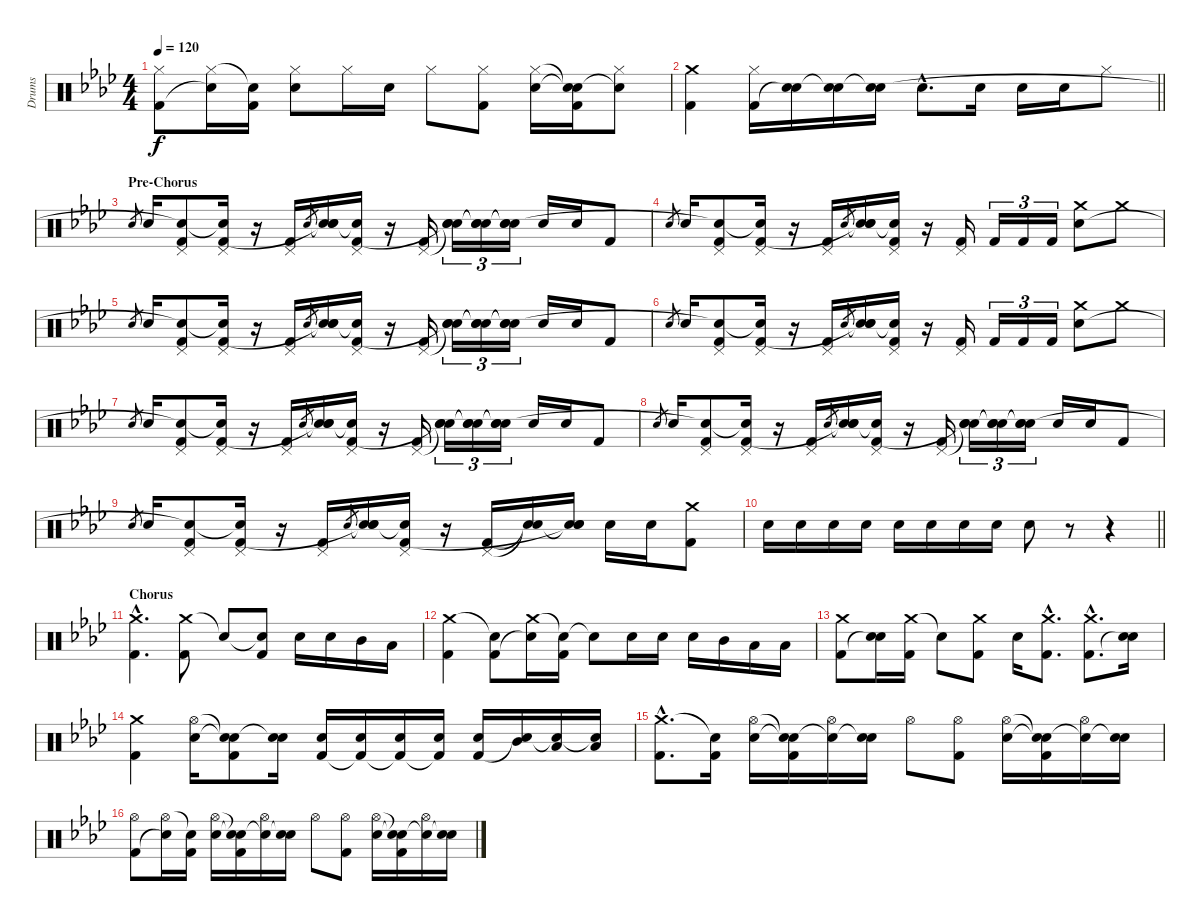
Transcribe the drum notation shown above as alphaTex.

\track ("Drums" "Drums") {instrument percussion}
\staff {score}
\articulation defaults
\ts (4 4)
\tempo 120
\clef neutral
\ks fminor
("Hi-Hat (closed)" "Kick (hit) 2").8{dy f} ("Hi-Hat (closed)" "Snare (hit)"{t}).16 ("Snare (hit)"{t} "Kick (hit) 2").16 ("Hi-Hat (closed)" "Electric Snare (hit)").8 "Hi-Hat (closed)".16 "Electric Snare (hit)".16 "Hi-Hat (closed)".8 ("Hi-Hat (closed)" "Kick (hit) 2").8 ("Hi-Hat (closed)" "Electric Snare (hit)").16 ("Snare (hit)"{t} "Snare (hit)"{t} "Kick (hit) 2").16 ("Hi-Hat (closed)" "Snare (hit)"{t}).8 |
\barLineRight lightlight
("Crash medium (hit)" "Kick (hit) 2").4 ("Hi-Hat (closed)" "Kick (hit) 2").16 ("Electric Snare (hit)" "Snare (hit)"{t}).16 ("Electric Snare (hit)" "Snare (hit)"{t}).16 ("Electric Snare (hit)" "Snare (hit)"{t}).16 "Electric Snare (hit)"{hac}.8{d} "Electric Snare (hit)".16 "Electric Snare (hit)".16 "Electric Snare (hit)".16 "Hi-Hat (closed)".8 |
\section ("" "Pre-Chorus")
"Electric Snare (hit)".8{gr} "Electric Snare (hit)".16 ("Pedal Hi-Hat (hit)" "Snare (hit)"{t} "Kick (hit) 2").8 ("Pedal Hi-Hat (hit)" "Snare (hit)"{t} "Kick (hit) 2").16 r.16 ("Pedal Hi-Hat (hit)" "Kick (hit) 2").16 "Electric Snare (hit)".8{gr} ("Snare (hit)"{t} "Electric Snare (hit)" "Snare (hit)"{t}).16 ("Pedal Hi-Hat (hit)" "Snare (hit)"{t} "Kick (hit) 2").16 r.16 ("Pedal Hi-Hat (hit)" "Kick (hit) 2").16 ("Snare (hit)"{t} "Electric Snare (hit)" "Snare (hit)"{t}).16{tu (3 2)} ("Snare (hit)"{t} "Electric Snare (hit)" "Snare (hit)"{t}).16{tu (3 2)} ("Snare (hit)"{t} "Electric Snare (hit)" "Snare (hit)"{t}).16{tu (3 2)} "Electric Snare (hit)".16 "Electric Snare (hit)".16 "Kick (hit) 2".8 |
"Electric Snare (hit)".8{gr} "Electric Snare (hit)".16 ("Pedal Hi-Hat (hit)" "Snare (hit)"{t} "Kick (hit) 2").8 ("Pedal Hi-Hat (hit)" "Snare (hit)"{t} "Kick (hit) 2").16 r.16 ("Pedal Hi-Hat (hit)" "Kick (hit) 2").16 "Electric Snare (hit)".8{gr} ("Snare (hit)"{t} "Electric Snare (hit)" "Snare (hit)"{t}).16 ("Pedal Hi-Hat (hit)" "Snare (hit)"{t} "Kick (hit) 2").16 r.16 ("Pedal Hi-Hat (hit)" "Kick (hit) 2").16 "Kick (hit) 2".16{tu (3 2)} "Kick (hit) 2".16{tu (3 2)} "Kick (hit) 2".16{tu (3 2)} ("Crash medium (hit)" "Electric Snare (hit)").8 "Crash medium (hit)".8 |
"Electric Snare (hit)".8{gr} "Electric Snare (hit)".16 ("Pedal Hi-Hat (hit)" "Snare (hit)"{t} "Kick (hit) 2").8 ("Pedal Hi-Hat (hit)" "Snare (hit)"{t} "Kick (hit) 2").16 r.16 ("Pedal Hi-Hat (hit)" "Kick (hit) 2").16 "Electric Snare (hit)".8{gr} ("Snare (hit)"{t} "Electric Snare (hit)" "Snare (hit)"{t}).16 ("Pedal Hi-Hat (hit)" "Snare (hit)"{t} "Kick (hit) 2").16 r.16 ("Pedal Hi-Hat (hit)" "Kick (hit) 2").16 ("Snare (hit)"{t} "Electric Snare (hit)" "Snare (hit)"{t}).16{tu (3 2)} ("Snare (hit)"{t} "Electric Snare (hit)" "Snare (hit)"{t}).16{tu (3 2)} ("Snare (hit)"{t} "Electric Snare (hit)" "Snare (hit)"{t}).16{tu (3 2)} "Electric Snare (hit)".16 "Electric Snare (hit)".16 "Kick (hit) 2".8 |
"Electric Snare (hit)".8{gr} "Electric Snare (hit)".16 ("Pedal Hi-Hat (hit)" "Snare (hit)"{t} "Kick (hit) 2").8 ("Pedal Hi-Hat (hit)" "Snare (hit)"{t} "Kick (hit) 2").16 r.16 ("Pedal Hi-Hat (hit)" "Kick (hit) 2").16 "Electric Snare (hit)".8{gr} ("Snare (hit)"{t} "Electric Snare (hit)" "Snare (hit)"{t}).16 ("Pedal Hi-Hat (hit)" "Snare (hit)"{t} "Kick (hit) 2").16 r.16 ("Pedal Hi-Hat (hit)" "Kick (hit) 2").16 "Kick (hit) 2".16{tu (3 2)} "Kick (hit) 2".16{tu (3 2)} "Kick (hit) 2".16{tu (3 2)} ("Crash medium (hit)" "Electric Snare (hit)").8 "Crash medium (hit)".8 |
"Electric Snare (hit)".8{gr} "Electric Snare (hit)".16 ("Pedal Hi-Hat (hit)" "Snare (hit)"{t} "Kick (hit) 2").8 ("Pedal Hi-Hat (hit)" "Snare (hit)"{t} "Kick (hit) 2").16 r.16 ("Pedal Hi-Hat (hit)" "Kick (hit) 2").16 "Electric Snare (hit)".8{gr} ("Snare (hit)"{t} "Electric Snare (hit)" "Snare (hit)"{t}).16 ("Pedal Hi-Hat (hit)" "Snare (hit)"{t} "Kick (hit) 2").16 r.16 ("Pedal Hi-Hat (hit)" "Kick (hit) 2").16 ("Snare (hit)"{t} "Electric Snare (hit)" "Snare (hit)"{t}).16{tu (3 2)} ("Snare (hit)"{t} "Electric Snare (hit)" "Snare (hit)"{t}).16{tu (3 2)} ("Snare (hit)"{t} "Electric Snare (hit)" "Snare (hit)"{t}).16{tu (3 2)} "Electric Snare (hit)".16 "Electric Snare (hit)".16 "Kick (hit) 2".8 |
"Electric Snare (hit)".8{gr} "Electric Snare (hit)".16 ("Pedal Hi-Hat (hit)" "Snare (hit)"{t} "Kick (hit) 2").8 ("Pedal Hi-Hat (hit)" "Snare (hit)"{t} "Kick (hit) 2").16 r.16 ("Pedal Hi-Hat (hit)" "Kick (hit) 2").16 "Electric Snare (hit)".8{gr} ("Snare (hit)"{t} "Electric Snare (hit)" "Snare (hit)"{t}).16 ("Pedal Hi-Hat (hit)" "Snare (hit)"{t} "Kick (hit) 2").16 r.16 ("Pedal Hi-Hat (hit)" "Kick (hit) 2").16 ("Snare (hit)"{t} "Electric Snare (hit)" "Snare (hit)"{t}).16{tu (3 2)} ("Snare (hit)"{t} "Electric Snare (hit)" "Snare (hit)"{t}).16{tu (3 2)} ("Snare (hit)"{t} "Electric Snare (hit)" "Snare (hit)"{t}).16{tu (3 2)} "Electric Snare (hit)".16 "Electric Snare (hit)".16 "Kick (hit) 2".8 |
"Electric Snare (hit)".8{gr} "Electric Snare (hit)".16 ("Pedal Hi-Hat (hit)" "Snare (hit)"{t} "Kick (hit) 2").8 ("Pedal Hi-Hat (hit)" "Snare (hit)"{t} "Kick (hit) 2").16 r.16 ("Pedal Hi-Hat (hit)" "Kick (hit) 2").16 "Electric Snare (hit)".8{gr} ("Snare (hit)"{t} "Electric Snare (hit)" "Snare (hit)"{t}).16 ("Pedal Hi-Hat (hit)" "Snare (hit)"{t} "Kick (hit) 2").16 r.16 ("Pedal Hi-Hat (hit)" "Kick (hit) 2").16 ("Snare (hit)"{t} "Snare (hit)"{t}).16 ("Snare (hit)"{t} "Electric Snare (hit)" "Snare (hit)"{t}).16 "Electric Snare (hit)".16 "Electric Snare (hit)".16 ("Crash medium (hit)" "Kick (hit) 2").8 |
\barLineRight lightlight "Electric Snare (hit)".16 "Electric Snare (hit)".16 "Electric Snare (hit)".16 "Electric Snare (hit)".16 "Electric Snare (hit)".16 "Electric Snare (hit)".16 "Electric Snare (hit)".16 "Electric Snare (hit)".16 "Electric Snare (hit)".8
r.8 r.4 |
\section ("" "Chorus")
("Crash medium (hit)"{hac} "Kick (hit) 2"{hac}).4{d} ("Crash medium (hit)" "Kick (hit) 2").8 "Snare (hit)"{t}.8 ("Snare (hit)"{t} "Kick (hit) 2").8 "Electric Snare (hit)".16 "Electric Snare (hit)".16 "Mid Tom (hit)".16 "Low Floor Tom (hit)".16 |
("Crash medium (hit)" "Kick (hit) 2").4 ("Snare (hit)"{t} "Kick (hit) 2").8 ("Crash medium (hit)" "Snare (hit)"{t}).16 ("Snare (hit)"{t} "Kick (hit) 2").16 "Snare (hit)"{t}.8 "Electric Snare (hit)".16 "Electric Snare (hit)".16 "Electric Snare (hit)".16 "Mid Tom (hit)".16 "Low Tom (hit)".16 "Low Floor Tom (hit)".16 |
("Crash medium (hit)" "Kick (hit) 2").8 ("Electric Snare (hit)" "Snare (hit)"{t}).16 ("Crash medium (hit)" "Kick (hit) 2").16 "Snare (hit)"{t}.8 ("Crash medium (hit)" "Kick (hit) 2").8 "Electric Snare (hit)".16 ("Crash medium (hit)"{hac} "Kick (hit) 2"{hac}).8{d} ("Crash medium (hit)"{hac} "Kick (hit) 2"{hac}).8{d} ("Electric Snare (hit)" "Snare (hit)"{t}).16 |
("Crash medium (hit)" "Kick (hit) 2").4 ("Hi-Hat (open)" "Electric Snare (hit)").16 ("Snare (hit)"{t} "Snare (hit)"{t} "Kick (hit) 2").8 ("Electric Snare (hit)" "Snare (hit)"{t}).16 ("Electric Snare (hit)" "Kick (hit) 2").16 ("Electric Snare (hit)" "Kick (hit) 2"{t}).16 ("Electric Snare (hit)" "Kick (hit) 2"{t}).16 ("Electric Snare (hit)" "Kick (hit) 2"{t}).16 ("Electric Snare (hit)" "Kick (hit) 2").16 ("Mid Tom (hit)" "Snare (hit)"{t}).16 ("Low Tom (hit)" "Snare (hit)"{t}).16 ("Low Floor Tom (hit)" "Snare (hit)"{t}).16 |
("Crash medium (hit)"{hac} "Kick (hit) 2"{hac}).8{d} ("Snare (hit)"{t} "Kick (hit) 2").16 ("Hi-Hat (open)" "Electric Snare (hit)").16 ("Snare (hit)"{t} "Snare (hit)"{t} "Kick (hit) 2").16 ("Hi-Hat (open)" "Snare (hit)"{t}).16 ("Electric Snare (hit)" "Snare (hit)"{t}).16 "Hi-Hat (open)".8 ("Hi-Hat (open)" "Kick (hit) 2").8 ("Hi-Hat (open)" "Electric Snare (hit)").16 ("Snare (hit)"{t} "Snare (hit)"{t} "Kick (hit) 2").16 ("Hi-Hat (open)" "Snare (hit)"{t}).16 ("Electric Snare (hit)" "Snare (hit)"{t}).16 |
("Hi-Hat (open)" "Kick (hit) 2").8 ("Hi-Hat (open)" "Snare (hit)"{t}).16 ("Snare (hit)"{t} "Kick (hit) 2").16 ("Hi-Hat (open)" "Electric Snare (hit)").16 ("Snare (hit)"{t} "Snare (hit)"{t} "Kick (hit) 2").16 ("Hi-Hat (open)" "Snare (hit)"{t}).16 ("Electric Snare (hit)" "Snare (hit)"{t}).16 "Hi-Hat (open)".8 ("Hi-Hat (open)" "Kick (hit) 2").8 ("Hi-Hat (open)" "Electric Snare (hit)").16 ("Snare (hit)"{t} "Snare (hit)"{t} "Kick (hit) 2").16 ("Hi-Hat (open)" "Snare (hit)"{t}).16 ("Electric Snare (hit)" "Snare (hit)"{t}).16
